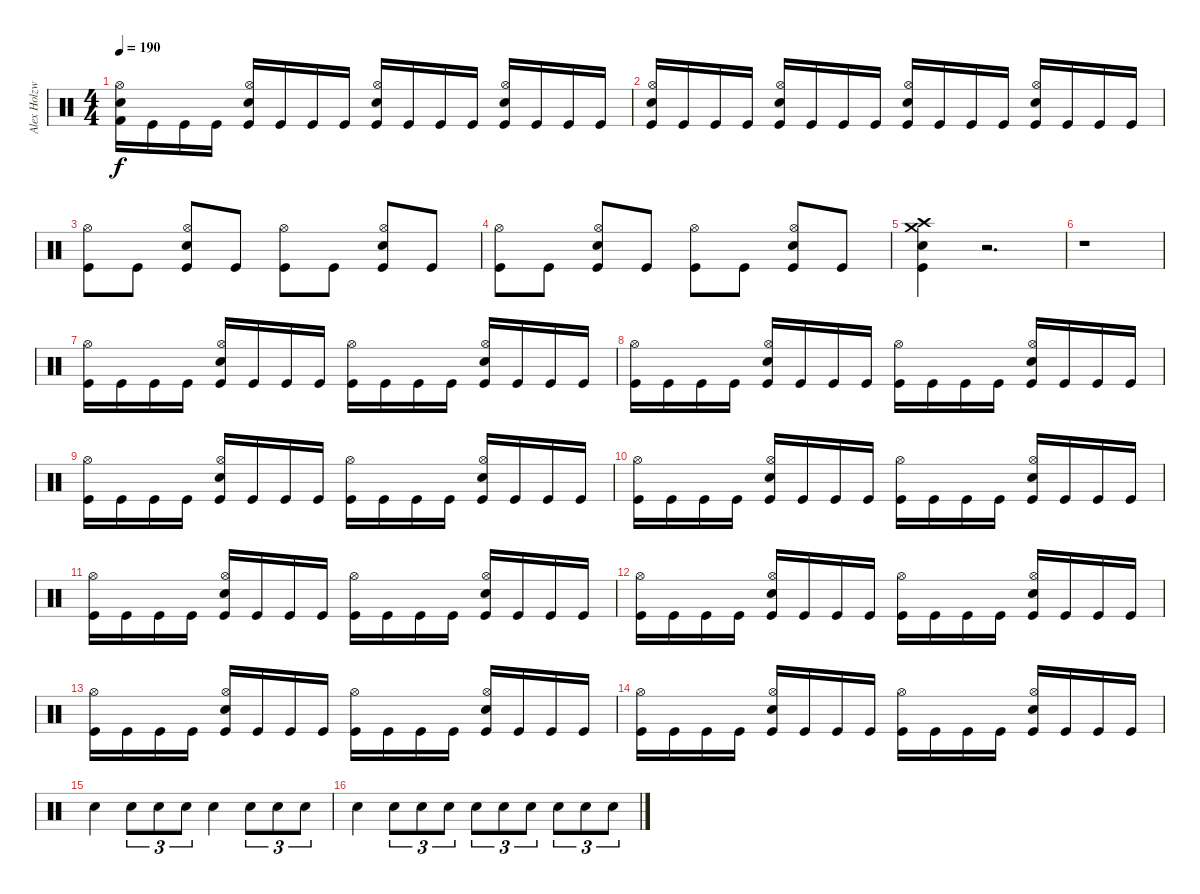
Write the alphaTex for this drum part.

\track ("Alex Holzwarth" "Alex Holzw") {instrument percussion}
\staff {score}
\articulation defaults
\ts (4 4)
\tempo 190
\clef neutral
\ks c
("Kick (hit) 2" "Electric Snare (hit)" "Hi-Hat (open)").16{dy f} "Kick (hit)".16 "Kick (hit)".16 "Kick (hit)".16 ("Kick (hit)" "Electric Snare (hit)" "Hi-Hat (open)").16 "Kick (hit)".16 "Kick (hit)".16 "Kick (hit)".16 ("Kick (hit)" "Electric Snare (hit)" "Hi-Hat (open)").16 "Kick (hit)".16 "Kick (hit)".16 "Kick (hit)".16 ("Kick (hit)" "Electric Snare (hit)" "Hi-Hat (open)").16 "Kick (hit)".16 "Kick (hit)".16 "Kick (hit)".16 |
("Kick (hit)" "Electric Snare (hit)" "Hi-Hat (open)").16 "Kick (hit)".16 "Kick (hit)".16 "Kick (hit)".16 ("Kick (hit)" "Electric Snare (hit)" "Hi-Hat (open)").16 "Kick (hit)".16 "Kick (hit)".16 "Kick (hit)".16 ("Kick (hit)" "Electric Snare (hit)" "Hi-Hat (open)").16 "Kick (hit)".16 "Kick (hit)".16 "Kick (hit)".16 ("Kick (hit)" "Electric Snare (hit)" "Hi-Hat (open)").16 "Kick (hit)".16 "Kick (hit)".16 "Kick (hit)".16 |
("Kick (hit)" "Hi-Hat (open)").8 "Kick (hit)".8 ("Kick (hit)" "Electric Snare (hit)" "Hi-Hat (open)").8 "Kick (hit)".8 ("Kick (hit)" "Hi-Hat (open)").8 "Kick (hit)".8 ("Kick (hit)" "Electric Snare (hit)" "Hi-Hat (open)").8 "Kick (hit)".8 |
("Kick (hit)" "Hi-Hat (open)").8 "Kick (hit)".8 ("Kick (hit)" "Electric Snare (hit)" "Hi-Hat (open)").8 "Kick (hit)".8 ("Kick (hit)" "Hi-Hat (open)").8 "Kick (hit)".8 ("Kick (hit)" "Electric Snare (hit)" "Hi-Hat (open)").8 "Kick (hit)".8 |
("Kick (hit)" "Electric Snare (hit)" "Crash medium (hit)" "Crash high (hit)").4 r.2{d} |
r.1 |
("Kick (hit)" "Hi-Hat (open)").16 "Kick (hit)".16 "Kick (hit)".16 "Kick (hit)".16 ("Kick (hit)" "Electric Snare (hit)" "Hi-Hat (open)").16 "Kick (hit)".16 "Kick (hit)".16 "Kick (hit)".16 ("Kick (hit)" "Hi-Hat (open)").16 "Kick (hit)".16 "Kick (hit)".16 "Kick (hit)".16 ("Kick (hit)" "Electric Snare (hit)" "Hi-Hat (open)").16 "Kick (hit)".16 "Kick (hit)".16 "Kick (hit)".16 |
("Kick (hit)" "Hi-Hat (open)").16 "Kick (hit)".16 "Kick (hit)".16 "Kick (hit)".16 ("Kick (hit)" "Electric Snare (hit)" "Hi-Hat (open)").16 "Kick (hit)".16 "Kick (hit)".16 "Kick (hit)".16 ("Kick (hit)" "Hi-Hat (open)").16 "Kick (hit)".16 "Kick (hit)".16 "Kick (hit)".16 ("Kick (hit)" "Electric Snare (hit)" "Hi-Hat (open)").16 "Kick (hit)".16 "Kick (hit)".16 "Kick (hit)".16 |
("Kick (hit)" "Hi-Hat (open)").16 "Kick (hit)".16 "Kick (hit)".16 "Kick (hit)".16 ("Kick (hit)" "Electric Snare (hit)" "Hi-Hat (open)").16 "Kick (hit)".16 "Kick (hit)".16 "Kick (hit)".16 ("Kick (hit)" "Hi-Hat (open)").16 "Kick (hit)".16 "Kick (hit)".16 "Kick (hit)".16 ("Kick (hit)" "Electric Snare (hit)" "Hi-Hat (open)").16 "Kick (hit)".16 "Kick (hit)".16 "Kick (hit)".16 |
("Kick (hit)" "Hi-Hat (open)").16 "Kick (hit)".16 "Kick (hit)".16 "Kick (hit)".16 ("Kick (hit)" "Electric Snare (hit)" "Hi-Hat (open)").16 "Kick (hit)".16 "Kick (hit)".16 "Kick (hit)".16 ("Kick (hit)" "Hi-Hat (open)").16 "Kick (hit)".16 "Kick (hit)".16 "Kick (hit)".16 ("Kick (hit)" "Electric Snare (hit)" "Hi-Hat (open)").16 "Kick (hit)".16 "Kick (hit)".16 "Kick (hit)".16 |
("Kick (hit)" "Hi-Hat (open)").16 "Kick (hit)".16 "Kick (hit)".16 "Kick (hit)".16 ("Kick (hit)" "Electric Snare (hit)" "Hi-Hat (open)").16 "Kick (hit)".16 "Kick (hit)".16 "Kick (hit)".16 ("Kick (hit)" "Hi-Hat (open)").16 "Kick (hit)".16 "Kick (hit)".16 "Kick (hit)".16 ("Kick (hit)" "Electric Snare (hit)" "Hi-Hat (open)").16 "Kick (hit)".16 "Kick (hit)".16 "Kick (hit)".16 |
("Kick (hit)" "Hi-Hat (open)").16 "Kick (hit)".16 "Kick (hit)".16 "Kick (hit)".16 ("Kick (hit)" "Electric Snare (hit)" "Hi-Hat (open)").16 "Kick (hit)".16 "Kick (hit)".16 "Kick (hit)".16 ("Kick (hit)" "Hi-Hat (open)").16 "Kick (hit)".16 "Kick (hit)".16 "Kick (hit)".16 ("Kick (hit)" "Electric Snare (hit)" "Hi-Hat (open)").16 "Kick (hit)".16 "Kick (hit)".16 "Kick (hit)".16 |
("Kick (hit)" "Hi-Hat (open)").16 "Kick (hit)".16 "Kick (hit)".16 "Kick (hit)".16 ("Kick (hit)" "Electric Snare (hit)" "Hi-Hat (open)").16 "Kick (hit)".16 "Kick (hit)".16 "Kick (hit)".16 ("Kick (hit)" "Hi-Hat (open)").16 "Kick (hit)".16 "Kick (hit)".16 "Kick (hit)".16 ("Kick (hit)" "Electric Snare (hit)" "Hi-Hat (open)").16 "Kick (hit)".16 "Kick (hit)".16 "Kick (hit)".16 |
("Kick (hit)" "Hi-Hat (open)").16 "Kick (hit)".16 "Kick (hit)".16 "Kick (hit)".16 ("Kick (hit)" "Electric Snare (hit)" "Hi-Hat (open)").16 "Kick (hit)".16 "Kick (hit)".16 "Kick (hit)".16 ("Kick (hit)" "Hi-Hat (open)").16 "Kick (hit)".16 "Kick (hit)".16 "Kick (hit)".16 ("Kick (hit)" "Electric Snare (hit)" "Hi-Hat (open)").16 "Kick (hit)".16 "Kick (hit)".16 "Kick (hit)".16 |
"Electric Snare (hit)".4 "Electric Snare (hit)".8{tu (3 2)} "Electric Snare (hit)".8{tu (3 2)} "Electric Snare (hit)".8{tu (3 2)} "Electric Snare (hit)".4 "Electric Snare (hit)".8{tu (3 2)} "Electric Snare (hit)".8{tu (3 2)} "Electric Snare (hit)".8{tu (3 2)} |
"Electric Snare (hit)".4 "Electric Snare (hit)".8{tu (3 2)} "Electric Snare (hit)".8{tu (3 2)} "Electric Snare (hit)".8{tu (3 2)} "Electric Snare (hit)".8{tu (3 2)} "Electric Snare (hit)".8{tu (3 2)} "Electric Snare (hit)".8{tu (3 2)} "Electric Snare (hit)".8{tu (3 2)} "Electric Snare (hit)".8{tu (3 2)} "Electric Snare (hit)".8{tu (3 2)}
